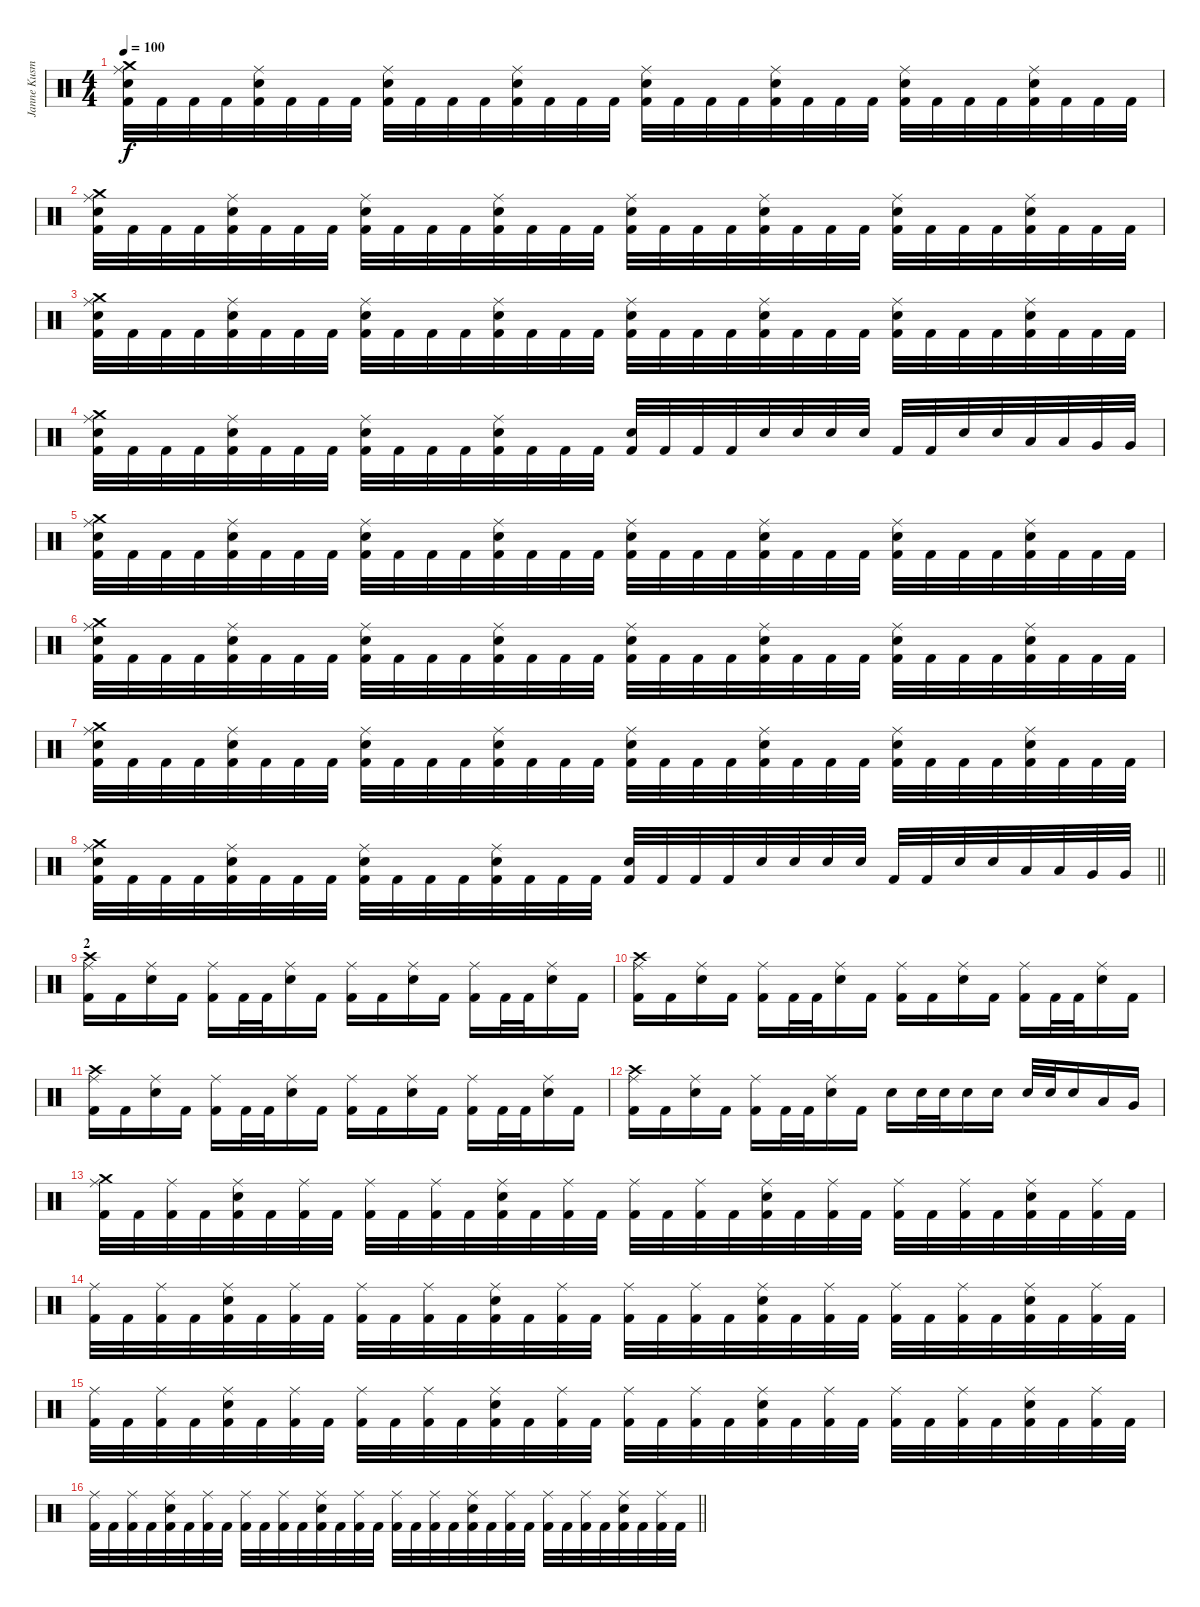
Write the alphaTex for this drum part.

\track ("Janne Kusmin " "Janne Kusm") {instrument percussion}
\staff {score}
\articulation defaults
\ts (4 4)
\tempo 100
\clef neutral
\ks c
("Crash medium (hit)" "Ride (middle)" "Electric Snare (hit)" "Kick (hit) 2").32{dy f} "Kick (hit) 2".32 "Kick (hit) 2".32 "Kick (hit) 2".32 ("Ride (middle)" "Electric Snare (hit)" "Kick (hit) 2").32 "Kick (hit) 2".32 "Kick (hit) 2".32 "Kick (hit) 2".32 ("Ride (middle)" "Electric Snare (hit)" "Kick (hit) 2").32 "Kick (hit) 2".32 "Kick (hit) 2".32 "Kick (hit) 2".32 ("Ride (middle)" "Electric Snare (hit)" "Kick (hit) 2").32 "Kick (hit) 2".32 "Kick (hit) 2".32 "Kick (hit) 2".32 ("Ride (middle)" "Electric Snare (hit)" "Kick (hit) 2").32 "Kick (hit) 2".32 "Kick (hit) 2".32 "Kick (hit) 2".32 ("Ride (middle)" "Electric Snare (hit)" "Kick (hit) 2").32 "Kick (hit) 2".32 "Kick (hit) 2".32 "Kick (hit) 2".32 ("Ride (middle)" "Electric Snare (hit)" "Kick (hit) 2").32 "Kick (hit) 2".32 "Kick (hit) 2".32 "Kick (hit) 2".32 ("Ride (middle)" "Electric Snare (hit)" "Kick (hit) 2").32 "Kick (hit) 2".32 "Kick (hit) 2".32 "Kick (hit) 2".32 |
("Crash medium (hit)" "Ride (middle)" "Electric Snare (hit)" "Kick (hit) 2").32 "Kick (hit) 2".32 "Kick (hit) 2".32 "Kick (hit) 2".32 ("Ride (middle)" "Electric Snare (hit)" "Kick (hit) 2").32 "Kick (hit) 2".32 "Kick (hit) 2".32 "Kick (hit) 2".32 ("Ride (middle)" "Electric Snare (hit)" "Kick (hit) 2").32 "Kick (hit) 2".32 "Kick (hit) 2".32 "Kick (hit) 2".32 ("Ride (middle)" "Electric Snare (hit)" "Kick (hit) 2").32 "Kick (hit) 2".32 "Kick (hit) 2".32 "Kick (hit) 2".32 ("Ride (middle)" "Electric Snare (hit)" "Kick (hit) 2").32 "Kick (hit) 2".32 "Kick (hit) 2".32 "Kick (hit) 2".32 ("Ride (middle)" "Electric Snare (hit)" "Kick (hit) 2").32 "Kick (hit) 2".32 "Kick (hit) 2".32 "Kick (hit) 2".32 ("Ride (middle)" "Electric Snare (hit)" "Kick (hit) 2").32 "Kick (hit) 2".32 "Kick (hit) 2".32 "Kick (hit) 2".32 ("Ride (middle)" "Electric Snare (hit)" "Kick (hit) 2").32 "Kick (hit) 2".32 "Kick (hit) 2".32 "Kick (hit) 2".32 |
("Crash medium (hit)" "Ride (middle)" "Electric Snare (hit)" "Kick (hit) 2").32 "Kick (hit) 2".32 "Kick (hit) 2".32 "Kick (hit) 2".32 ("Ride (middle)" "Electric Snare (hit)" "Kick (hit) 2").32 "Kick (hit) 2".32 "Kick (hit) 2".32 "Kick (hit) 2".32 ("Ride (middle)" "Electric Snare (hit)" "Kick (hit) 2").32 "Kick (hit) 2".32 "Kick (hit) 2".32 "Kick (hit) 2".32 ("Ride (middle)" "Electric Snare (hit)" "Kick (hit) 2").32 "Kick (hit) 2".32 "Kick (hit) 2".32 "Kick (hit) 2".32 ("Ride (middle)" "Electric Snare (hit)" "Kick (hit) 2").32 "Kick (hit) 2".32 "Kick (hit) 2".32 "Kick (hit) 2".32 ("Ride (middle)" "Electric Snare (hit)" "Kick (hit) 2").32 "Kick (hit) 2".32 "Kick (hit) 2".32 "Kick (hit) 2".32 ("Ride (middle)" "Electric Snare (hit)" "Kick (hit) 2").32 "Kick (hit) 2".32 "Kick (hit) 2".32 "Kick (hit) 2".32 ("Ride (middle)" "Electric Snare (hit)" "Kick (hit) 2").32 "Kick (hit) 2".32 "Kick (hit) 2".32 "Kick (hit) 2".32 |
("Crash medium (hit)" "Ride (middle)" "Electric Snare (hit)" "Kick (hit) 2").32 "Kick (hit) 2".32 "Kick (hit) 2".32 "Kick (hit) 2".32 ("Ride (middle)" "Electric Snare (hit)" "Kick (hit) 2").32 "Kick (hit) 2".32 "Kick (hit) 2".32 "Kick (hit) 2".32 ("Ride (middle)" "Electric Snare (hit)" "Kick (hit) 2").32 "Kick (hit) 2".32 "Kick (hit) 2".32 "Kick (hit) 2".32 ("Ride (middle)" "Electric Snare (hit)" "Kick (hit) 2").32 "Kick (hit) 2".32 "Kick (hit) 2".32 "Kick (hit) 2".32 ("Electric Snare (hit)" "Kick (hit) 2").32 "Kick (hit) 2".32 "Kick (hit) 2".32 "Kick (hit) 2".32 "Electric Snare (hit)".32 "Electric Snare (hit)".32 "Electric Snare (hit)".32 "Electric Snare (hit)".32 "Kick (hit) 2".32 "Kick (hit) 2".32 "Electric Snare (hit)".32 "Electric Snare (hit)".32 "Low Tom (hit)".32 "Low Tom (hit)".32 "Very Low Tom (hit)".32 "Very Low Tom (hit)".32 |
("Crash medium (hit)" "Ride (middle)" "Electric Snare (hit)" "Kick (hit) 2").32 "Kick (hit) 2".32 "Kick (hit) 2".32 "Kick (hit) 2".32 ("Ride (middle)" "Electric Snare (hit)" "Kick (hit) 2").32 "Kick (hit) 2".32 "Kick (hit) 2".32 "Kick (hit) 2".32 ("Ride (middle)" "Electric Snare (hit)" "Kick (hit) 2").32 "Kick (hit) 2".32 "Kick (hit) 2".32 "Kick (hit) 2".32 ("Ride (middle)" "Electric Snare (hit)" "Kick (hit) 2").32 "Kick (hit) 2".32 "Kick (hit) 2".32 "Kick (hit) 2".32 ("Ride (middle)" "Electric Snare (hit)" "Kick (hit) 2").32 "Kick (hit) 2".32 "Kick (hit) 2".32 "Kick (hit) 2".32 ("Ride (middle)" "Electric Snare (hit)" "Kick (hit) 2").32 "Kick (hit) 2".32 "Kick (hit) 2".32 "Kick (hit) 2".32 ("Ride (middle)" "Electric Snare (hit)" "Kick (hit) 2").32 "Kick (hit) 2".32 "Kick (hit) 2".32 "Kick (hit) 2".32 ("Ride (middle)" "Electric Snare (hit)" "Kick (hit) 2").32 "Kick (hit) 2".32 "Kick (hit) 2".32 "Kick (hit) 2".32 |
("Crash medium (hit)" "Ride (middle)" "Electric Snare (hit)" "Kick (hit) 2").32 "Kick (hit) 2".32 "Kick (hit) 2".32 "Kick (hit) 2".32 ("Ride (middle)" "Electric Snare (hit)" "Kick (hit) 2").32 "Kick (hit) 2".32 "Kick (hit) 2".32 "Kick (hit) 2".32 ("Ride (middle)" "Electric Snare (hit)" "Kick (hit) 2").32 "Kick (hit) 2".32 "Kick (hit) 2".32 "Kick (hit) 2".32 ("Ride (middle)" "Electric Snare (hit)" "Kick (hit) 2").32 "Kick (hit) 2".32 "Kick (hit) 2".32 "Kick (hit) 2".32 ("Ride (middle)" "Electric Snare (hit)" "Kick (hit) 2").32 "Kick (hit) 2".32 "Kick (hit) 2".32 "Kick (hit) 2".32 ("Ride (middle)" "Electric Snare (hit)" "Kick (hit) 2").32 "Kick (hit) 2".32 "Kick (hit) 2".32 "Kick (hit) 2".32 ("Ride (middle)" "Electric Snare (hit)" "Kick (hit) 2").32 "Kick (hit) 2".32 "Kick (hit) 2".32 "Kick (hit) 2".32 ("Ride (middle)" "Electric Snare (hit)" "Kick (hit) 2").32 "Kick (hit) 2".32 "Kick (hit) 2".32 "Kick (hit) 2".32 |
("Crash medium (hit)" "Ride (middle)" "Electric Snare (hit)" "Kick (hit) 2").32 "Kick (hit) 2".32 "Kick (hit) 2".32 "Kick (hit) 2".32 ("Ride (middle)" "Electric Snare (hit)" "Kick (hit) 2").32 "Kick (hit) 2".32 "Kick (hit) 2".32 "Kick (hit) 2".32 ("Ride (middle)" "Electric Snare (hit)" "Kick (hit) 2").32 "Kick (hit) 2".32 "Kick (hit) 2".32 "Kick (hit) 2".32 ("Ride (middle)" "Electric Snare (hit)" "Kick (hit) 2").32 "Kick (hit) 2".32 "Kick (hit) 2".32 "Kick (hit) 2".32 ("Ride (middle)" "Electric Snare (hit)" "Kick (hit) 2").32 "Kick (hit) 2".32 "Kick (hit) 2".32 "Kick (hit) 2".32 ("Ride (middle)" "Electric Snare (hit)" "Kick (hit) 2").32 "Kick (hit) 2".32 "Kick (hit) 2".32 "Kick (hit) 2".32 ("Ride (middle)" "Electric Snare (hit)" "Kick (hit) 2").32 "Kick (hit) 2".32 "Kick (hit) 2".32 "Kick (hit) 2".32 ("Ride (middle)" "Electric Snare (hit)" "Kick (hit) 2").32 "Kick (hit) 2".32 "Kick (hit) 2".32 "Kick (hit) 2".32 |
\barLineRight lightlight
("Crash medium (hit)" "Ride (middle)" "Electric Snare (hit)" "Kick (hit) 2").32 "Kick (hit) 2".32 "Kick (hit) 2".32 "Kick (hit) 2".32 ("Ride (middle)" "Electric Snare (hit)" "Kick (hit) 2").32 "Kick (hit) 2".32 "Kick (hit) 2".32 "Kick (hit) 2".32 ("Ride (middle)" "Electric Snare (hit)" "Kick (hit) 2").32 "Kick (hit) 2".32 "Kick (hit) 2".32 "Kick (hit) 2".32 ("Ride (middle)" "Electric Snare (hit)" "Kick (hit) 2").32 "Kick (hit) 2".32 "Kick (hit) 2".32 "Kick (hit) 2".32 ("Electric Snare (hit)" "Kick (hit) 2").32 "Kick (hit) 2".32 "Kick (hit) 2".32 "Kick (hit) 2".32 "Electric Snare (hit)".32 "Electric Snare (hit)".32 "Electric Snare (hit)".32 "Electric Snare (hit)".32 "Kick (hit) 2".32 "Kick (hit) 2".32 "Electric Snare (hit)".32 "Electric Snare (hit)".32 "Low Tom (hit)".32 "Low Tom (hit)".32 "Very Low Tom (hit)".32 "Very Low Tom (hit)".32 |
\section ("" "2")
("Crash high (hit)" "Ride (middle)" "Kick (hit) 2").16 "Kick (hit) 2".16 ("Ride (middle)" "Electric Snare (hit)").16 "Kick (hit) 2".16 ("Ride (middle)" "Kick (hit) 2").16 "Kick (hit) 2".32 "Kick (hit) 2".32 ("Ride (middle)" "Electric Snare (hit)").16 "Kick (hit) 2".16 ("Ride (middle)" "Kick (hit) 2").16 "Kick (hit) 2".16 ("Ride (middle)" "Electric Snare (hit)").16 "Kick (hit) 2".16 ("Ride (middle)" "Kick (hit) 2").16 "Kick (hit) 2".32 "Kick (hit) 2".32 ("Ride (middle)" "Electric Snare (hit)").16 "Kick (hit) 2".16 |
("Crash high (hit)" "Ride (middle)" "Kick (hit) 2").16 "Kick (hit) 2".16 ("Ride (middle)" "Electric Snare (hit)").16 "Kick (hit) 2".16 ("Ride (middle)" "Kick (hit) 2").16 "Kick (hit) 2".32 "Kick (hit) 2".32 ("Ride (middle)" "Electric Snare (hit)").16 "Kick (hit) 2".16 ("Ride (middle)" "Kick (hit) 2").16 "Kick (hit) 2".16 ("Ride (middle)" "Electric Snare (hit)").16 "Kick (hit) 2".16 ("Ride (middle)" "Kick (hit) 2").16 "Kick (hit) 2".32 "Kick (hit) 2".32 ("Ride (middle)" "Electric Snare (hit)").16 "Kick (hit) 2".16 |
("Crash high (hit)" "Ride (middle)" "Kick (hit) 2").16 "Kick (hit) 2".16 ("Ride (middle)" "Electric Snare (hit)").16 "Kick (hit) 2".16 ("Ride (middle)" "Kick (hit) 2").16 "Kick (hit) 2".32 "Kick (hit) 2".32 ("Ride (middle)" "Electric Snare (hit)").16 "Kick (hit) 2".16 ("Ride (middle)" "Kick (hit) 2").16 "Kick (hit) 2".16 ("Ride (middle)" "Electric Snare (hit)").16 "Kick (hit) 2".16 ("Ride (middle)" "Kick (hit) 2").16 "Kick (hit) 2".32 "Kick (hit) 2".32 ("Ride (middle)" "Electric Snare (hit)").16 "Kick (hit) 2".16 |
("Crash high (hit)" "Ride (middle)" "Kick (hit) 2").16 "Kick (hit) 2".16 ("Ride (middle)" "Electric Snare (hit)").16 "Kick (hit) 2".16 ("Ride (middle)" "Kick (hit) 2").16 "Kick (hit) 2".32 "Kick (hit) 2".32 ("Ride (middle)" "Electric Snare (hit)").16 "Kick (hit) 2".16 "Electric Snare (hit)".16 "Electric Snare (hit)".32 "Electric Snare (hit)".32 "Electric Snare (hit)".16 "Electric Snare (hit)".16 "Electric Snare (hit)".32 "Electric Snare (hit)".32 "Electric Snare (hit)".16 "Low Tom (hit)".16 "Very Low Tom (hit)".16 |
("Crash medium (hit)" "Ride (middle)" "Kick (hit) 2").32 "Kick (hit) 2".32 ("Ride (middle)" "Kick (hit) 2").32 "Kick (hit) 2".32 ("Ride (middle)" "Electric Snare (hit)" "Kick (hit) 2").32 "Kick (hit) 2".32 ("Ride (middle)" "Kick (hit) 2").32 "Kick (hit) 2".32 ("Ride (middle)" "Kick (hit) 2").32 "Kick (hit) 2".32 ("Ride (middle)" "Kick (hit) 2").32 "Kick (hit) 2".32 ("Ride (middle)" "Electric Snare (hit)" "Kick (hit) 2").32 "Kick (hit) 2".32 ("Ride (middle)" "Kick (hit) 2").32 "Kick (hit) 2".32 ("Ride (middle)" "Kick (hit) 2").32 "Kick (hit) 2".32 ("Ride (middle)" "Kick (hit) 2").32 "Kick (hit) 2".32 ("Ride (middle)" "Electric Snare (hit)" "Kick (hit) 2").32 "Kick (hit) 2".32 ("Ride (middle)" "Kick (hit) 2").32 "Kick (hit) 2".32 ("Ride (middle)" "Kick (hit) 2").32 "Kick (hit) 2".32 ("Ride (middle)" "Kick (hit) 2").32 "Kick (hit) 2".32 ("Ride (middle)" "Electric Snare (hit)" "Kick (hit) 2").32 "Kick (hit) 2".32 ("Ride (middle)" "Kick (hit) 2").32 "Kick (hit) 2".32 |
("Ride (middle)" "Kick (hit) 2").32 "Kick (hit) 2".32 ("Ride (middle)" "Kick (hit) 2").32 "Kick (hit) 2".32 ("Ride (middle)" "Electric Snare (hit)" "Kick (hit) 2").32 "Kick (hit) 2".32 ("Ride (middle)" "Kick (hit) 2").32 "Kick (hit) 2".32 ("Ride (middle)" "Kick (hit) 2").32 "Kick (hit) 2".32 ("Ride (middle)" "Kick (hit) 2").32 "Kick (hit) 2".32 ("Ride (middle)" "Electric Snare (hit)" "Kick (hit) 2").32 "Kick (hit) 2".32 ("Ride (middle)" "Kick (hit) 2").32 "Kick (hit) 2".32 ("Ride (middle)" "Kick (hit) 2").32 "Kick (hit) 2".32 ("Ride (middle)" "Kick (hit) 2").32 "Kick (hit) 2".32 ("Ride (middle)" "Electric Snare (hit)" "Kick (hit) 2").32 "Kick (hit) 2".32 ("Ride (middle)" "Kick (hit) 2").32 "Kick (hit) 2".32 ("Ride (middle)" "Kick (hit) 2").32 "Kick (hit) 2".32 ("Ride (middle)" "Kick (hit) 2").32 "Kick (hit) 2".32 ("Ride (middle)" "Electric Snare (hit)" "Kick (hit) 2").32 "Kick (hit) 2".32 ("Ride (middle)" "Kick (hit) 2").32 "Kick (hit) 2".32 |
("Ride (middle)" "Kick (hit) 2").32 "Kick (hit) 2".32 ("Ride (middle)" "Kick (hit) 2").32 "Kick (hit) 2".32 ("Ride (middle)" "Electric Snare (hit)" "Kick (hit) 2").32 "Kick (hit) 2".32 ("Ride (middle)" "Kick (hit) 2").32 "Kick (hit) 2".32 ("Ride (middle)" "Kick (hit) 2").32 "Kick (hit) 2".32 ("Ride (middle)" "Kick (hit) 2").32 "Kick (hit) 2".32 ("Ride (middle)" "Electric Snare (hit)" "Kick (hit) 2").32 "Kick (hit) 2".32 ("Ride (middle)" "Kick (hit) 2").32 "Kick (hit) 2".32 ("Ride (middle)" "Kick (hit) 2").32 "Kick (hit) 2".32 ("Ride (middle)" "Kick (hit) 2").32 "Kick (hit) 2".32 ("Ride (middle)" "Electric Snare (hit)" "Kick (hit) 2").32 "Kick (hit) 2".32 ("Ride (middle)" "Kick (hit) 2").32 "Kick (hit) 2".32 ("Ride (middle)" "Kick (hit) 2").32 "Kick (hit) 2".32 ("Ride (middle)" "Kick (hit) 2").32 "Kick (hit) 2".32 ("Ride (middle)" "Electric Snare (hit)" "Kick (hit) 2").32 "Kick (hit) 2".32 ("Ride (middle)" "Kick (hit) 2").32 "Kick (hit) 2".32 |
\barLineRight lightlight
("Ride (middle)" "Kick (hit) 2").32 "Kick (hit) 2".32 ("Ride (middle)" "Kick (hit) 2").32 "Kick (hit) 2".32 ("Ride (middle)" "Electric Snare (hit)" "Kick (hit) 2").32 "Kick (hit) 2".32 ("Ride (middle)" "Kick (hit) 2").32 "Kick (hit) 2".32 ("Ride (middle)" "Kick (hit) 2").32 "Kick (hit) 2".32 ("Ride (middle)" "Kick (hit) 2").32 "Kick (hit) 2".32 ("Ride (middle)" "Electric Snare (hit)" "Kick (hit) 2").32 "Kick (hit) 2".32 ("Ride (middle)" "Kick (hit) 2").32 "Kick (hit) 2".32 ("Ride (middle)" "Kick (hit) 2").32 "Kick (hit) 2".32 ("Ride (middle)" "Kick (hit) 2").32 "Kick (hit) 2".32 ("Ride (middle)" "Electric Snare (hit)" "Kick (hit) 2").32 "Kick (hit) 2".32 ("Ride (middle)" "Kick (hit) 2").32 "Kick (hit) 2".32 ("Ride (middle)" "Kick (hit) 2").32 "Kick (hit) 2".32 ("Ride (middle)" "Kick (hit) 2").32 "Kick (hit) 2".32 ("Ride (middle)" "Electric Snare (hit)" "Kick (hit) 2").32 "Kick (hit) 2".32 ("Ride (middle)" "Kick (hit) 2").32 "Kick (hit) 2".32
